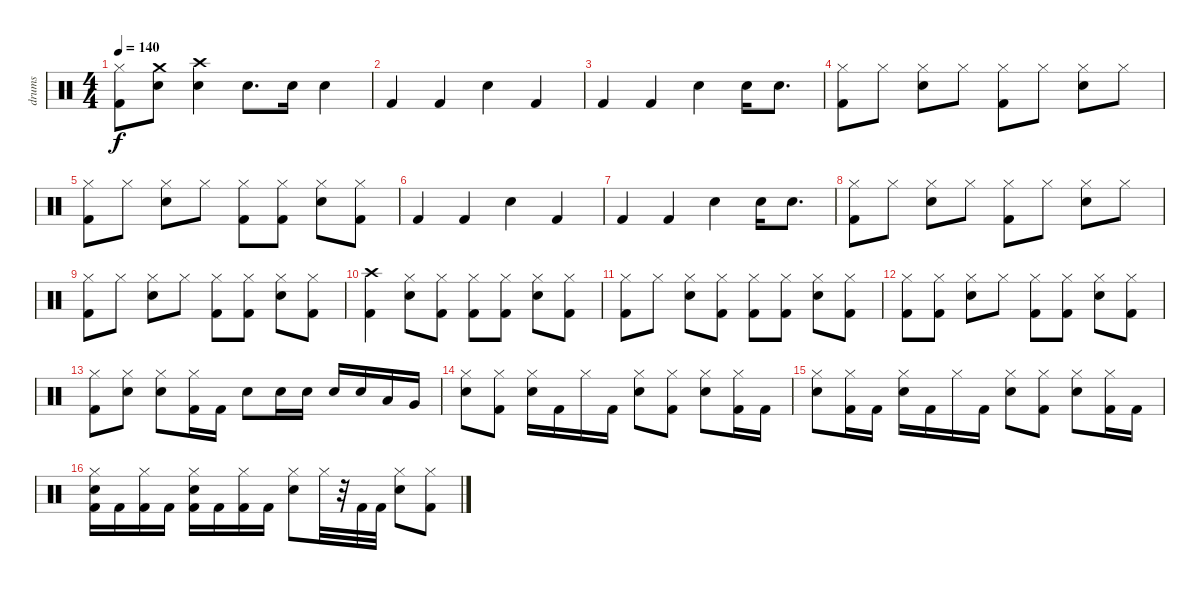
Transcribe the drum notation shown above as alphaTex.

\track ("drums" "drums") {instrument percussion}
\staff {score}
\articulation defaults
\ts (4 4)
\tempo 140
\clef neutral
\ks c
("Hi-Hat (closed)" "Kick (hit) 2").8{dy f} ("Crash medium (hit)" "Electric Snare (hit)").8 ("Crash high (hit)" "Electric Snare (hit)").4 "Electric Snare (hit)".8{d} "Electric Snare (hit)".16 "Electric Snare (hit)".4 |
"Kick (hit) 2".4 "Kick (hit) 2".4 "Electric Snare (hit)".4 "Kick (hit) 2".4 |
"Kick (hit) 2".4 "Kick (hit) 2".4 "Electric Snare (hit)".4 "Electric Snare (hit)".16 "Electric Snare (hit)".8{d} |
("Hi-Hat (closed)" "Kick (hit) 2").8 "Hi-Hat (closed)".8 ("Hi-Hat (closed)" "Electric Snare (hit)").8 "Hi-Hat (closed)".8 ("Hi-Hat (closed)" "Kick (hit) 2").8 "Hi-Hat (closed)".8 ("Hi-Hat (closed)" "Electric Snare (hit)").8 "Hi-Hat (closed)".8 |
("Hi-Hat (closed)" "Kick (hit) 2").8 "Hi-Hat (closed)".8 ("Hi-Hat (closed)" "Electric Snare (hit)").8 "Hi-Hat (closed)".8 ("Hi-Hat (closed)" "Kick (hit) 2").8 ("Hi-Hat (closed)" "Kick (hit) 2").8 ("Hi-Hat (closed)" "Electric Snare (hit)").8 ("Hi-Hat (closed)" "Kick (hit) 2").8 |
"Kick (hit) 2".4 "Kick (hit) 2".4 "Electric Snare (hit)".4 "Kick (hit) 2".4 |
"Kick (hit) 2".4 "Kick (hit) 2".4 "Electric Snare (hit)".4 "Electric Snare (hit)".16 "Electric Snare (hit)".8{d} |
("Hi-Hat (closed)" "Kick (hit) 2").8 "Hi-Hat (closed)".8 ("Hi-Hat (closed)" "Electric Snare (hit)").8 "Hi-Hat (closed)".8 ("Hi-Hat (closed)" "Kick (hit) 2").8 "Hi-Hat (closed)".8 ("Hi-Hat (closed)" "Electric Snare (hit)").8 "Hi-Hat (closed)".8 |
("Hi-Hat (closed)" "Kick (hit) 2").8 "Hi-Hat (closed)".8 ("Hi-Hat (closed)" "Electric Snare (hit)").8 "Hi-Hat (closed)".8 ("Hi-Hat (closed)" "Kick (hit) 2").8 ("Hi-Hat (closed)" "Kick (hit) 2").8 ("Hi-Hat (closed)" "Electric Snare (hit)").8 ("Hi-Hat (closed)" "Kick (hit) 2").8 |
("Crash high (hit)" "Kick (hit) 2").4 ("Hi-Hat (closed)" "Electric Snare (hit)").8 ("Hi-Hat (closed)" "Kick (hit) 2").8 ("Hi-Hat (closed)" "Kick (hit) 2").8 ("Hi-Hat (closed)" "Kick (hit) 2").8 ("Hi-Hat (closed)" "Electric Snare (hit)").8 ("Hi-Hat (closed)" "Kick (hit) 2").8 |
("Hi-Hat (closed)" "Kick (hit) 2").8 "Hi-Hat (closed)".8 ("Hi-Hat (closed)" "Electric Snare (hit)").8 ("Hi-Hat (closed)" "Kick (hit) 2").8 ("Hi-Hat (closed)" "Kick (hit) 2").8 ("Hi-Hat (closed)" "Kick (hit) 2").8 ("Hi-Hat (closed)" "Electric Snare (hit)").8 ("Hi-Hat (closed)" "Kick (hit) 2").8 |
("Hi-Hat (closed)" "Kick (hit) 2").8 ("Hi-Hat (closed)" "Kick (hit) 2").8 ("Hi-Hat (closed)" "Electric Snare (hit)").8 "Hi-Hat (closed)".8 ("Hi-Hat (closed)" "Kick (hit) 2").8 ("Hi-Hat (closed)" "Kick (hit) 2").8 ("Hi-Hat (closed)" "Electric Snare (hit)").8 ("Hi-Hat (closed)" "Kick (hit) 2").8 |
("Hi-Hat (closed)" "Kick (hit) 2").8 ("Hi-Hat (closed)" "Electric Snare (hit)").8 ("Hi-Hat (closed)" "Electric Snare (hit)").8 ("Hi-Hat (closed)" "Kick (hit) 2").16 "Kick (hit) 2".16 "Electric Snare (hit)".8 "Electric Snare (hit)".16 "Electric Snare (hit)".16 "Electric Snare (hit)".16 "Electric Snare (hit)".16 "Low Tom (hit)".16 "Very Low Tom (hit)".16 |
("Hi-Hat (closed)" "Electric Snare (hit)").8 ("Hi-Hat (closed)" "Kick (hit) 2").8 ("Hi-Hat (closed)" "Electric Snare (hit)").16 "Kick (hit) 2".16 "Hi-Hat (closed)".16 "Kick (hit) 2".16 ("Hi-Hat (closed)" "Electric Snare (hit)").8 ("Hi-Hat (closed)" "Kick (hit) 2").8 ("Hi-Hat (closed)" "Electric Snare (hit)").8 ("Hi-Hat (closed)" "Kick (hit) 2").16 "Kick (hit) 2".16 |
("Hi-Hat (closed)" "Electric Snare (hit)").8 ("Hi-Hat (closed)" "Kick (hit) 2").16 "Kick (hit) 2".16 ("Hi-Hat (closed)" "Electric Snare (hit)").16 "Kick (hit) 2".16 "Hi-Hat (closed)".16 "Kick (hit) 2".16 ("Hi-Hat (closed)" "Electric Snare (hit)").8 ("Hi-Hat (closed)" "Kick (hit) 2").8 ("Hi-Hat (closed)" "Electric Snare (hit)").8 ("Hi-Hat (closed)" "Kick (hit) 2").16 "Kick (hit) 2".16 |
("Hi-Hat (closed)" "Electric Snare (hit)" "Kick (hit) 2").16 "Kick (hit) 2".16 ("Hi-Hat (closed)" "Kick (hit) 2").16 "Kick (hit) 2".16 ("Hi-Hat (closed)" "Electric Snare (hit)" "Kick (hit) 2").16 "Kick (hit) 2".16 ("Hi-Hat (closed)" "Kick (hit) 2").16 "Kick (hit) 2".16 ("Hi-Hat (closed)" "Electric Snare (hit)").8 "Hi-Hat (closed)".32 r.32 "Kick (hit) 2".32 "Kick (hit) 2".32 ("Hi-Hat (closed)" "Electric Snare (hit)").8 ("Hi-Hat (closed)" "Kick (hit) 2").8
